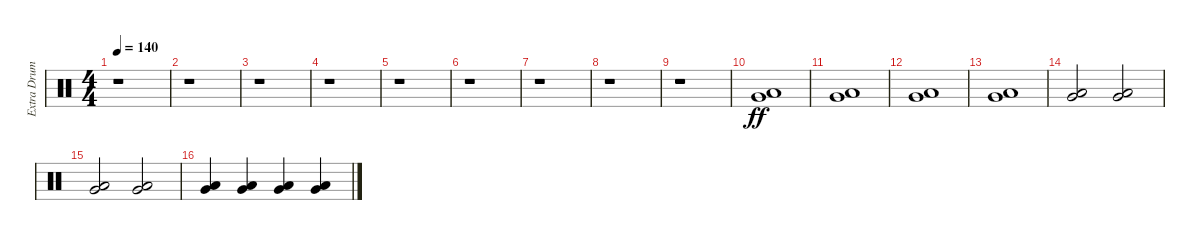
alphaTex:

\track ("Extra Drums" "Extra Drum") {instrument percussion}
\staff {score}
\articulation defaults
\ts (4 4)
\tempo 140
\clef neutral
\ks c
r.1{dy f} |
r.1 |
r.1 |
r.1 |
r.1 |
r.1 |
r.1 |
r.1 |
r.1 |
("Low Floor Tom (hit)" "Very Low Tom (hit)").1{dy ff} |
("Low Floor Tom (hit)" "Very Low Tom (hit)").1 |
("Low Floor Tom (hit)" "Very Low Tom (hit)").1 |
("Low Floor Tom (hit)" "Very Low Tom (hit)").1 |
("Low Floor Tom (hit)" "Very Low Tom (hit)").2 ("Low Floor Tom (hit)" "Very Low Tom (hit)").2 |
("Low Floor Tom (hit)" "Very Low Tom (hit)").2 ("Low Floor Tom (hit)" "Very Low Tom (hit)").2 |
("Low Floor Tom (hit)" "Very Low Tom (hit)").4 ("Low Floor Tom (hit)" "Very Low Tom (hit)").4 ("Low Floor Tom (hit)" "Very Low Tom (hit)").4 ("Low Floor Tom (hit)" "Very Low Tom (hit)").4
